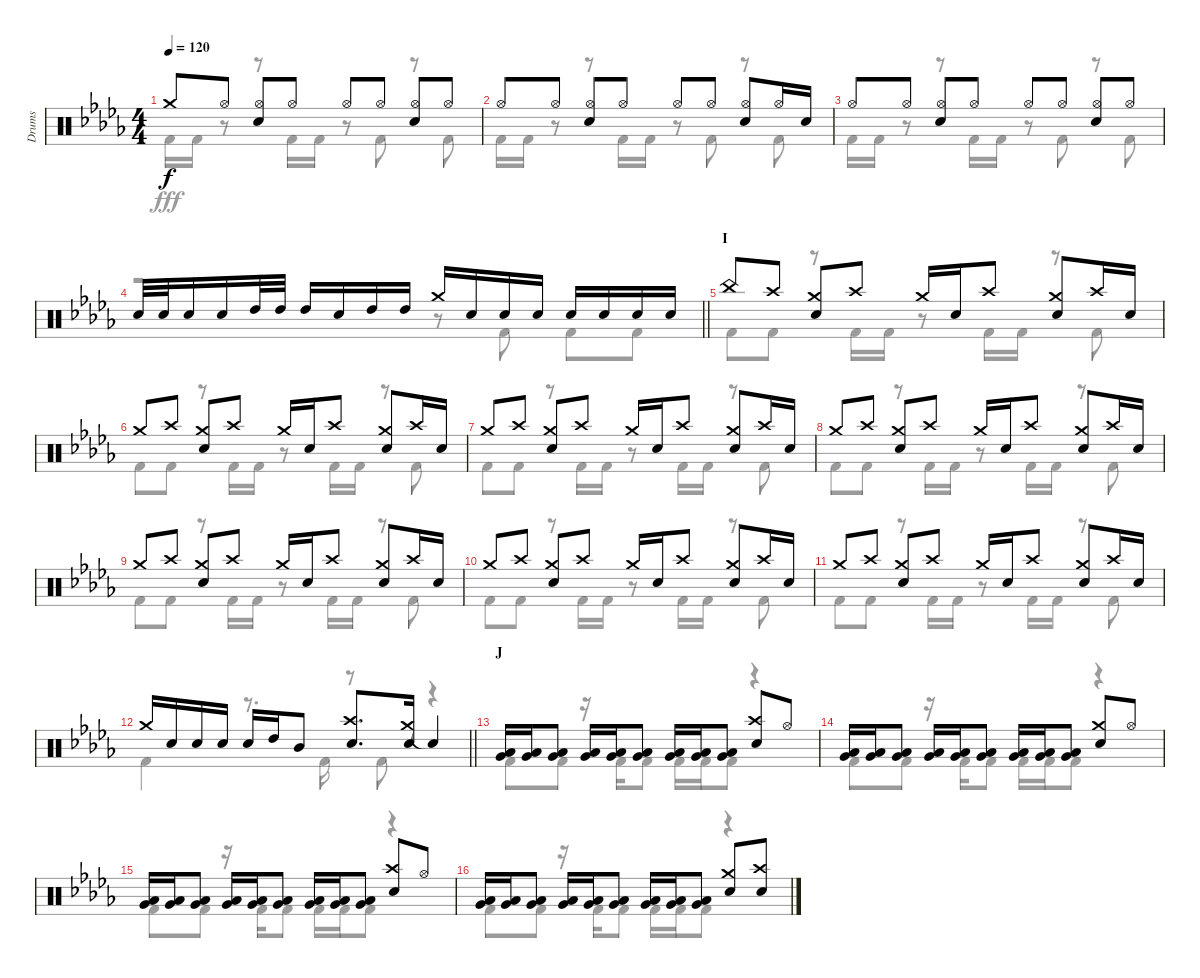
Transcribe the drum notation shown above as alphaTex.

\track ("Drums" "Drums") {instrument percussion}
\staff {score}
\articulation defaults
\voice
\ts (4 4)
\tempo 120
\clef neutral
\ks db "Crash medium (hit)".8{dy f} "Hi-Hat (open)".8
("Hi-Hat (open)" "Snare (hit) 2").8 "Hi-Hat (open)".8 "Hi-Hat (open)".8 "Hi-Hat (open)".8 ("Hi-Hat (open)" "Snare (hit) 2").8 "Hi-Hat (open)".8 |
"Hi-Hat (open)".8 "Hi-Hat (open)".8 ("Hi-Hat (open)" "Snare (hit) 2").8 "Hi-Hat (open)".8 "Hi-Hat (open)".8 "Hi-Hat (open)".8 ("Hi-Hat (open)" "Snare (hit) 2").8 "Hi-Hat (open)".16 "Snare (hit) 2".16 |
"Hi-Hat (open)".8 "Hi-Hat (open)".8 ("Hi-Hat (open)" "Snare (hit) 2").8 "Hi-Hat (open)".8 "Hi-Hat (open)".8 "Hi-Hat (open)".8 ("Hi-Hat (open)" "Snare (hit) 2").8 "Hi-Hat (open)".8 |
\barLineRight lightlight "Snare (hit) 2".32 "Snare (hit) 2".32 "Snare (hit) 2".16 "Snare (hit) 2".16 "High Tom (hit)".32 "High Tom (hit)".32 "High Tom (hit)".16 "Snare (hit) 2".16 "High Tom (hit)".16 "High Tom (hit)".16 "Crash medium (hit)".16 "Snare (hit) 2".16 "Snare (hit) 2".16 "Snare (hit) 2".16 "Snare (hit) 2".16 "Snare (hit) 2".16 "Snare (hit) 2".16 "Snare (hit) 2".16
|
\section ("" "I")
"China (hit)".8 "Crash high (hit)".8 ("Crash medium (hit)" "Snare (hit) 2").8 "Crash high (hit)".8 "Crash medium (hit)".16 "Snare (hit) 2".16 "Crash high (hit)".8 ("Crash medium (hit)" "Snare (hit) 2").8 "Crash high (hit)".16 "Snare (hit) 2".16 |
"Crash medium (hit)".8 "Crash high (hit)".8 ("Crash medium (hit)" "Snare (hit) 2").8 "Crash high (hit)".8 "Crash medium (hit)".16 "Snare (hit) 2".16 "Crash high (hit)".8 ("Crash medium (hit)" "Snare (hit) 2").8 "Crash high (hit)".16 "Snare (hit) 2".16 |
"Crash medium (hit)".8 "Crash high (hit)".8 ("Crash medium (hit)" "Snare (hit) 2").8 "Crash high (hit)".8 "Crash medium (hit)".16 "Snare (hit) 2".16 "Crash high (hit)".8 ("Crash medium (hit)" "Snare (hit) 2").8 "Crash high (hit)".16 "Snare (hit) 2".16 |
"Crash medium (hit)".8 "Crash high (hit)".8 ("Crash medium (hit)" "Snare (hit) 2").8 "Crash high (hit)".8 "Crash medium (hit)".16 "Snare (hit) 2".16 "Crash high (hit)".8 ("Crash medium (hit)" "Snare (hit) 2").8 "Crash high (hit)".16 "Snare (hit) 2".16 |
"Crash medium (hit)".8 "Crash high (hit)".8 ("Crash medium (hit)" "Snare (hit) 2").8 "Crash high (hit)".8 "Crash medium (hit)".16 "Snare (hit) 2".16 "Crash high (hit)".8 ("Crash medium (hit)" "Snare (hit) 2").8 "Crash high (hit)".16 "Snare (hit) 2".16 |
"Crash medium (hit)".8 "Crash high (hit)".8 ("Crash medium (hit)" "Snare (hit) 2").8 "Crash high (hit)".8 "Crash medium (hit)".16 "Snare (hit) 2".16 "Crash high (hit)".8 ("Crash medium (hit)" "Snare (hit) 2").8 "Crash high (hit)".16 "Snare (hit) 2".16 |
"Crash medium (hit)".8 "Crash high (hit)".8 ("Crash medium (hit)" "Snare (hit) 2").8 "Crash high (hit)".8 "Crash medium (hit)".16 "Snare (hit) 2".16 "Crash high (hit)".8 ("Crash medium (hit)" "Snare (hit) 2").8 "Crash high (hit)".16 "Snare (hit) 2".16 |
\barLineRight lightlight "Crash medium (hit)".16 "Snare (hit) 2".16 "Snare (hit) 2".16 "Snare (hit) 2".16 "Snare (hit) 2".16 "High Tom (hit)".16 "Mid Tom (hit)".8
("Crash high (hit)" "Snare (hit) 2").8{d} ("Crash medium (hit)" "Snare (hit) 2").16 "Snare (hit)"{t}.4 |
\section ("" "J")
("Low Tom (hit)" "Very Low Tom (hit)").16 ("Low Tom (hit)" "Very Low Tom (hit)").16 ("Low Tom (hit)" "Very Low Tom (hit)").8 ("Low Tom (hit)" "Very Low Tom (hit)").16 ("Low Tom (hit)" "Very Low Tom (hit)").16 ("Low Tom (hit)" "Very Low Tom (hit)").8 ("Low Tom (hit)" "Very Low Tom (hit)").16 ("Low Tom (hit)" "Very Low Tom (hit)").16 ("Low Tom (hit)" "Very Low Tom (hit)").8 ("Crash high (hit)" "Snare (hit) 2").8 "Hi-Hat (open)".8 |
("Low Tom (hit)" "Very Low Tom (hit)").16 ("Low Tom (hit)" "Very Low Tom (hit)").16 ("Low Tom (hit)" "Very Low Tom (hit)").8 ("Low Tom (hit)" "Very Low Tom (hit)").16 ("Low Tom (hit)" "Very Low Tom (hit)").16 ("Low Tom (hit)" "Very Low Tom (hit)").8 ("Low Tom (hit)" "Very Low Tom (hit)").16 ("Low Tom (hit)" "Very Low Tom (hit)").16 ("Low Tom (hit)" "Very Low Tom (hit)").8 ("Crash medium (hit)" "Snare (hit) 2").8 "Hi-Hat (open)".8 |
("Low Tom (hit)" "Very Low Tom (hit)").16 ("Low Tom (hit)" "Very Low Tom (hit)").16 ("Low Tom (hit)" "Very Low Tom (hit)").8 ("Low Tom (hit)" "Very Low Tom (hit)").16 ("Low Tom (hit)" "Very Low Tom (hit)").16 ("Low Tom (hit)" "Very Low Tom (hit)").8 ("Low Tom (hit)" "Very Low Tom (hit)").16 ("Low Tom (hit)" "Very Low Tom (hit)").16 ("Low Tom (hit)" "Very Low Tom (hit)").8 ("Crash high (hit)" "Snare (hit) 2").8 "Hi-Hat (open)".8 |
("Low Tom (hit)" "Very Low Tom (hit)").16 ("Low Tom (hit)" "Very Low Tom (hit)").16 ("Low Tom (hit)" "Very Low Tom (hit)").8 ("Low Tom (hit)" "Very Low Tom (hit)").16 ("Low Tom (hit)" "Very Low Tom (hit)").16 ("Low Tom (hit)" "Very Low Tom (hit)").8 ("Low Tom (hit)" "Very Low Tom (hit)").16 ("Low Tom (hit)" "Very Low Tom (hit)").16 ("Low Tom (hit)" "Very Low Tom (hit)").8 ("Crash medium (hit)" "Snare (hit) 2").8 ("Crash high (hit)" "Snare (hit) 2").8
\voice
\clef neutral
\ottava regular
\simile none
\ks db "Kick (hit) 2".16{dy fff} "Kick (hit) 2".16
r.8 r.8 "Kick (hit) 2".16 "Kick (hit) 2".16 r.8 "Kick (hit) 2".8 r.8 "Kick (hit) 2".8 |
"Kick (hit) 2".16 "Kick (hit) 2".16 r.8 r.8 "Kick (hit) 2".16 "Kick (hit) 2".16 r.8 "Kick (hit) 2".8 r.8 "Kick (hit) 2".8 |
"Kick (hit) 2".16 "Kick (hit) 2".16 r.8 r.8 "Kick (hit) 2".16 "Kick (hit) 2".16 r.8 "Kick (hit) 2".8 r.8 "Kick (hit) 2".8 |
\barLineRight lightlight
r.2 r.8 "Kick (hit) 2".8 "Kick (hit) 2".8 "Kick (hit) 2".8 |
"Kick (hit) 2".8 "Kick (hit) 2".8 r.8 "Kick (hit) 2".16 "Kick (hit) 2".16 r.8 "Kick (hit) 2".16 "Kick (hit) 2".16 r.8 "Kick (hit) 2".8 |
"Kick (hit) 2".8 "Kick (hit) 2".8 r.8 "Kick (hit) 2".16 "Kick (hit) 2".16 r.8 "Kick (hit) 2".16 "Kick (hit) 2".16 r.8 "Kick (hit) 2".8 |
"Kick (hit) 2".8 "Kick (hit) 2".8 r.8 "Kick (hit) 2".16 "Kick (hit) 2".16 r.8 "Kick (hit) 2".16 "Kick (hit) 2".16 r.8 "Kick (hit) 2".8 |
"Kick (hit) 2".8 "Kick (hit) 2".8 r.8 "Kick (hit) 2".16 "Kick (hit) 2".16 r.8 "Kick (hit) 2".16 "Kick (hit) 2".16 r.8 "Kick (hit) 2".8 |
"Kick (hit) 2".8 "Kick (hit) 2".8 r.8 "Kick (hit) 2".16 "Kick (hit) 2".16 r.8 "Kick (hit) 2".16 "Kick (hit) 2".16 r.8 "Kick (hit) 2".8 |
"Kick (hit) 2".8 "Kick (hit) 2".8 r.8 "Kick (hit) 2".16 "Kick (hit) 2".16 r.8 "Kick (hit) 2".16 "Kick (hit) 2".16 r.8 "Kick (hit) 2".8 |
"Kick (hit) 2".8 "Kick (hit) 2".8 r.8 "Kick (hit) 2".16 "Kick (hit) 2".16 r.8 "Kick (hit) 2".16 "Kick (hit) 2".16 r.8 "Kick (hit) 2".8 |
\barLineRight lightlight "Kick (hit) 2".4
r.8{d} "Kick (hit) 2".16 r.8 "Kick (hit) 2".8 r.4 |
"Kick (hit) 2".8 "Kick (hit) 2".8 r.16 "Kick (hit) 2".16 "Kick (hit) 2".8 "Kick (hit) 2".16 "Kick (hit) 2".16 "Kick (hit) 2".8 r.4 |
"Kick (hit) 2".8 "Kick (hit) 2".8 r.16 "Kick (hit) 2".16 "Kick (hit) 2".8 "Kick (hit) 2".16 "Kick (hit) 2".16 "Kick (hit) 2".8 r.4 |
"Kick (hit) 2".8 "Kick (hit) 2".8 r.16 "Kick (hit) 2".16 "Kick (hit) 2".8 "Kick (hit) 2".16 "Kick (hit) 2".16 "Kick (hit) 2".8 r.4 |
"Kick (hit) 2".8 "Kick (hit) 2".8 r.16 "Kick (hit) 2".16 "Kick (hit) 2".8 "Kick (hit) 2".16 "Kick (hit) 2".16 "Kick (hit) 2".8 r.4
